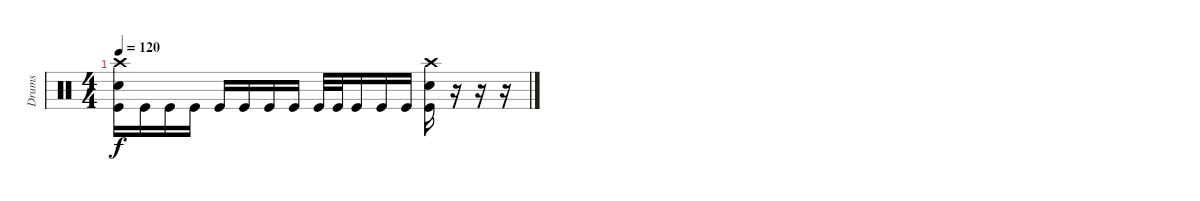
\track ("Drums" "Drums") {instrument percussion}
\staff {score}
\articulation defaults
\ts (4 4)
\tempo 120
\clef neutral
\ks c
("Crash high (hit)" "Snare (hit) 2" "Kick (hit)").16{dy f} "Kick (hit)".16 "Kick (hit)".16 "Kick (hit)".16 "Kick (hit)".16 "Kick (hit)".16 "Kick (hit)".16 "Kick (hit)".16 "Kick (hit)".32 "Kick (hit)".32 "Kick (hit)".16 "Kick (hit)".16 "Kick (hit)".16 ("Kick (hit)" "Snare (hit) 2" "Crash high (hit)").16 r.16 r.16 r.16
